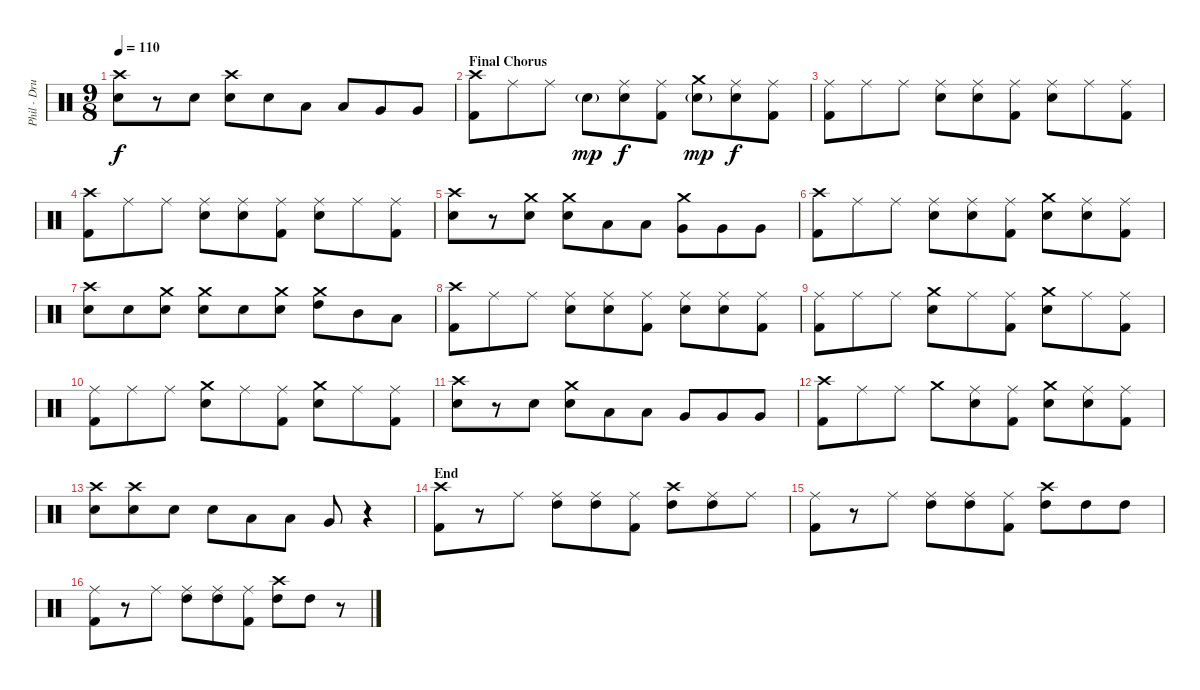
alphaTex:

\track ("Phil - Drums" "Phil - Dru") {instrument percussion}
\staff {score}
\articulation defaults
\ts (9 8)
\tempo 110
\clef neutral
\ks c
("Crash high (hit)" "Electric Snare (hit)").8{dy f} r.8 "Snare (hit) 2".8 ("Crash high (hit)" "Electric Snare (hit)").8 "Electric Snare (hit)".8 "Low Tom (hit)".8 "Low Tom (hit)".8 "Very Low Tom (hit)".8 "Very Low Tom (hit)".8 |
\section ("" "Final Chorus")
("Crash high (hit)" "Kick (hit) 2").8 "Ride (middle)".8 "Ride (middle)".8 "Electric Snare (hit)"{g}.8{dy mp} ("Ride (middle)" "Electric Snare (hit)").8{dy f} ("Ride (middle)" "Kick (hit) 2").8 ("Crash medium (hit)" "Electric Snare (hit)"{g}).8{dy mp} ("Ride (middle)" "Electric Snare (hit)").8{dy f} ("Ride (middle)" "Kick (hit) 2").8 |
("Ride (middle)" "Kick (hit) 2").8 "Ride (middle)".8 "Ride (middle)".8 ("Ride (middle)" "Electric Snare (hit)").8 ("Ride (middle)" "Electric Snare (hit)").8 ("Ride (middle)" "Kick (hit) 2").8 ("Ride (middle)" "Electric Snare (hit)").8 "Ride (middle)".8 ("Ride (middle)" "Kick (hit) 2").8 |
("Crash high (hit)" "Kick (hit) 2").8 "Ride (middle)".8 "Ride (middle)".8 ("Ride (middle)" "Electric Snare (hit)").8 ("Ride (middle)" "Electric Snare (hit)").8 ("Ride (middle)" "Kick (hit) 2").8 ("Ride (middle)" "Electric Snare (hit)").8 "Ride (middle)".8 ("Ride (middle)" "Kick (hit) 2").8 |
("Crash high (hit)" "Electric Snare (hit)").8 r.8 ("Crash medium (hit)" "Snare (hit) 2").8 ("Crash medium (hit)" "Electric Snare (hit)").8 "Low Tom (hit)".8 "Low Tom (hit)".8 ("Crash medium (hit)" "Very Low Tom (hit)").8 "Very Low Tom (hit)".8 "Very Low Tom (hit)".8 |
("Crash high (hit)" "Kick (hit) 2").8 "Ride (middle)".8 "Ride (middle)".8 ("Ride (middle)" "Electric Snare (hit)").8 ("Ride (middle)" "Electric Snare (hit)").8 ("Ride (middle)" "Kick (hit) 2").8 ("Crash medium (hit)" "Electric Snare (hit)").8 ("Ride (middle)" "Electric Snare (hit)").8 ("Ride (middle)" "Kick (hit) 2").8 |
("Crash high (hit)" "Snare (hit) 2").8 "Snare (hit) 2".8 ("Crash medium (hit)" "Electric Snare (hit)").8 ("Crash medium (hit)" "Electric Snare (hit)").8 "Electric Snare (hit)".8 ("Crash medium (hit)" "Electric Snare (hit)").8 ("Crash medium (hit)" "High Tom (hit)").8 "Mid Tom (hit)".8 "Low Tom (hit)".8 |
("Crash high (hit)" "Kick (hit) 2").8 "Ride (middle)".8 "Ride (middle)".8 ("Ride (middle)" "Electric Snare (hit)").8 ("Ride (middle)" "Electric Snare (hit)").8 ("Ride (middle)" "Kick (hit) 2").8 ("Ride (middle)" "Electric Snare (hit)").8 ("Ride (middle)" "Electric Snare (hit)").8 ("Ride (middle)" "Kick (hit) 2").8 |
("Ride (middle)" "Kick (hit) 2").8 "Ride (middle)".8 "Ride (middle)".8 ("Crash medium (hit)" "Electric Snare (hit)").8 "Ride (middle)".8 ("Ride (middle)" "Kick (hit) 2").8 ("Crash medium (hit)" "Electric Snare (hit)").8 "Ride (middle)".8 ("Ride (middle)" "Kick (hit) 2").8 |
("Ride (middle)" "Kick (hit) 2").8 "Ride (middle)".8 "Ride (middle)".8 ("Crash medium (hit)" "Electric Snare (hit)").8 "Ride (middle)".8 ("Ride (middle)" "Kick (hit) 2").8 ("Crash medium (hit)" "Electric Snare (hit)").8 "Ride (middle)".8 ("Ride (middle)" "Kick (hit) 2").8 |
("Crash high (hit)" "Electric Snare (hit)").8 r.8 "Snare (hit) 2".8 ("Crash medium (hit)" "Electric Snare (hit)").8 "Low Tom (hit)".8 "Low Tom (hit)".8 "Very Low Tom (hit)".8 "Very Low Tom (hit)".8 "Very Low Tom (hit)".8 |
("Crash high (hit)" "Kick (hit) 2").8 "Ride (middle)".8 "Ride (middle)".8 "Crash medium (hit)".8 ("Ride (middle)" "Electric Snare (hit)").8 ("Ride (middle)" "Kick (hit) 2").8 ("Crash medium (hit)" "Electric Snare (hit)").8 ("Ride (middle)" "Electric Snare (hit)").8 ("Ride (middle)" "Kick (hit) 2").8 |
("Crash high (hit)" "Snare (hit) 2").8 ("Crash high (hit)" "Electric Snare (hit)").8 "Electric Snare (hit)".8 "Electric Snare (hit)".8 "Low Tom (hit)".8 "Low Tom (hit)".8 "Very Low Tom (hit)".8 r.4 |
\section ("" "End")
("Crash high (hit)" "Kick (hit) 2").8 r.8 "Ride (middle)".8 ("Ride (middle)" "High Tom (hit)").8 ("Ride (middle)" "High Tom (hit)").8 ("Ride (middle)" "Kick (hit) 2").8 ("Crash high (hit)" "High Tom (hit)").8 ("Ride (middle)" "High Tom (hit)").8 "Ride (middle)".8 |
("Ride (middle)" "Kick (hit) 2").8 r.8 "Ride (middle)".8 ("Ride (middle)" "High Tom (hit)").8 ("Ride (middle)" "High Tom (hit)").8 ("Ride (middle)" "Kick (hit) 2").8 ("Crash high (hit)" "High Tom (hit)").8 "High Tom (hit)".8 "High Tom (hit)".8 |
("Ride (middle)" "Kick (hit) 2").8 r.8 "Ride (middle)".8 ("Ride (middle)" "High Tom (hit)").8 ("Ride (middle)" "High Tom (hit)").8 ("Ride (middle)" "Kick (hit) 2").8 ("Crash high (hit)" "High Tom (hit)").8 "High Tom (hit)".8 r.8
